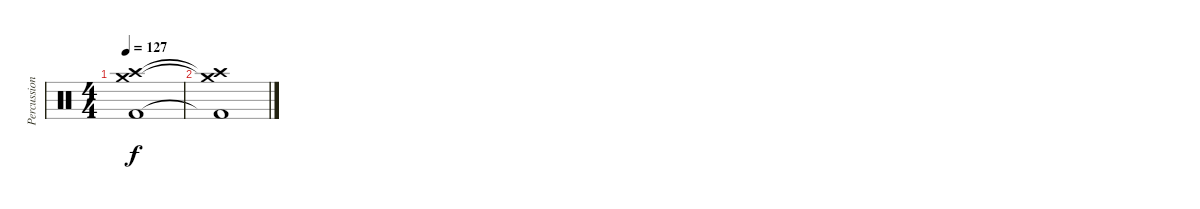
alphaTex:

\track ("Percussion" "Percussion") {instrument percussion}
\staff {score}
\articulation defaults
\ts (4 4)
\tempo 127
\clef neutral
\ks c
("Crash high (hit)" "Crash medium (hit)" "Kick (hit) 2").1{dy f} |
("Crash high (hit)"{t} "Crash medium (hit)"{t} "Kick (hit) 2"{t}).1
